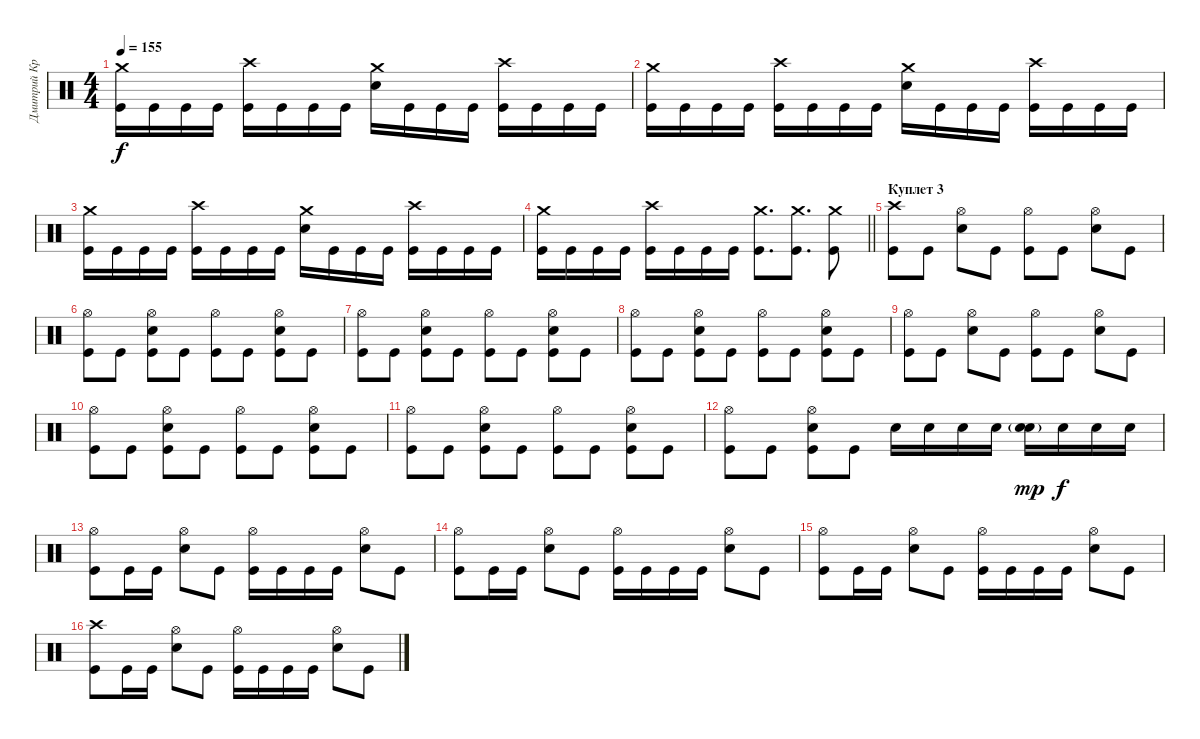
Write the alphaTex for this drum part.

\track ("Дмитрий Кривенков" "Дмитрий Кр") {instrument percussion}
\staff {score}
\articulation defaults
\ts (4 4)
\tempo 155
\clef neutral
\ks c
("Crash medium (hit)" "Kick (hit)").16{dy f} "Kick (hit)".16 "Kick (hit)".16 "Kick (hit)".16 ("Crash high (hit)" "Kick (hit)").16 "Kick (hit)".16 "Kick (hit)".16 "Kick (hit)".16 ("Crash medium (hit)" "Snare (hit) 2").16 "Kick (hit)".16 "Kick (hit)".16 "Kick (hit)".16 ("Crash high (hit)" "Kick (hit)").16 "Kick (hit)".16 "Kick (hit)".16 "Kick (hit)".16 |
("Crash medium (hit)" "Kick (hit)").16 "Kick (hit)".16 "Kick (hit)".16 "Kick (hit)".16 ("Crash high (hit)" "Kick (hit)").16 "Kick (hit)".16 "Kick (hit)".16 "Kick (hit)".16 ("Crash medium (hit)" "Snare (hit) 2").16 "Kick (hit)".16 "Kick (hit)".16 "Kick (hit)".16 ("Crash high (hit)" "Kick (hit)").16 "Kick (hit)".16 "Kick (hit)".16 "Kick (hit)".16 |
("Crash medium (hit)" "Kick (hit)").16 "Kick (hit)".16 "Kick (hit)".16 "Kick (hit)".16 ("Crash high (hit)" "Kick (hit)").16 "Kick (hit)".16 "Kick (hit)".16 "Kick (hit)".16 ("Crash medium (hit)" "Snare (hit) 2").16 "Kick (hit)".16 "Kick (hit)".16 "Kick (hit)".16 ("Crash high (hit)" "Kick (hit)").16 "Kick (hit)".16 "Kick (hit)".16 "Kick (hit)".16 |
\barLineRight lightlight
("Crash medium (hit)" "Kick (hit)").16 "Kick (hit)".16 "Kick (hit)".16 "Kick (hit)".16 ("Crash high (hit)" "Kick (hit)").16 "Kick (hit)".16 "Kick (hit)".16 "Kick (hit)".16 ("Crash medium (hit)" "Kick (hit)").8{d} ("Crash medium (hit)" "Kick (hit)").8{d} ("Crash medium (hit)" "Kick (hit)").8 |
\section ("" "Куплет 3")
("Crash high (hit)" "Kick (hit)").8 "Kick (hit)".8 ("Hi-Hat (open)" "Snare (hit) 2").8 "Kick (hit)".8 ("Hi-Hat (open)" "Kick (hit)").8 "Kick (hit)".8 ("Hi-Hat (open)" "Snare (hit) 2").8 "Kick (hit)".8 |
("Hi-Hat (open)" "Kick (hit)").8 "Kick (hit)".8 ("Hi-Hat (open)" "Snare (hit) 2" "Kick (hit)").8 "Kick (hit)".8 ("Hi-Hat (open)" "Kick (hit)").8 "Kick (hit)".8 ("Hi-Hat (open)" "Snare (hit) 2" "Kick (hit)").8 "Kick (hit)".8 |
("Hi-Hat (open)" "Kick (hit)").8 "Kick (hit)".8 ("Hi-Hat (open)" "Snare (hit) 2" "Kick (hit)").8 "Kick (hit)".8 ("Hi-Hat (open)" "Kick (hit)").8 "Kick (hit)".8 ("Hi-Hat (open)" "Snare (hit) 2" "Kick (hit)").8 "Kick (hit)".8 |
("Hi-Hat (open)" "Kick (hit)").8 "Kick (hit)".8 ("Hi-Hat (open)" "Snare (hit) 2" "Kick (hit)").8 "Kick (hit)".8 ("Hi-Hat (open)" "Kick (hit)").8 "Kick (hit)".8 ("Hi-Hat (open)" "Snare (hit) 2" "Kick (hit)").8 "Kick (hit)".8 |
("Hi-Hat (open)" "Kick (hit)").8 "Kick (hit)".8 ("Hi-Hat (open)" "Snare (hit) 2").8 "Kick (hit)".8 ("Hi-Hat (open)" "Kick (hit)").8 "Kick (hit)".8 ("Hi-Hat (open)" "Snare (hit) 2").8 "Kick (hit)".8 |
("Hi-Hat (open)" "Kick (hit)").8 "Kick (hit)".8 ("Hi-Hat (open)" "Snare (hit) 2" "Kick (hit)").8 "Kick (hit)".8 ("Hi-Hat (open)" "Kick (hit)").8 "Kick (hit)".8 ("Hi-Hat (open)" "Snare (hit) 2" "Kick (hit)").8 "Kick (hit)".8 |
("Hi-Hat (open)" "Kick (hit)").8 "Kick (hit)".8 ("Hi-Hat (open)" "Snare (hit) 2" "Kick (hit)").8 "Kick (hit)".8 ("Hi-Hat (open)" "Kick (hit)").8 "Kick (hit)".8 ("Hi-Hat (open)" "Snare (hit) 2" "Kick (hit)").8 "Kick (hit)".8 |
("Hi-Hat (open)" "Kick (hit)").8 "Kick (hit)".8 ("Hi-Hat (open)" "Snare (hit) 2" "Kick (hit)").8 "Kick (hit)".8 "Snare (hit) 2".16 "Snare (hit) 2".16 "Snare (hit) 2".16 "Snare (hit) 2".16 ("Snare (hit) 2"{g} "Snare (hit) 2").16{dy mp} "Snare (hit) 2".16{dy f} "Snare (hit) 2".16 "Snare (hit) 2".16 |
("Hi-Hat (open)" "Kick (hit)").8 "Kick (hit)".16 "Kick (hit)".16 ("Hi-Hat (open)" "Snare (hit) 2").8 "Kick (hit)".8 ("Hi-Hat (open)" "Kick (hit)").16 "Kick (hit)".16 "Kick (hit)".16 "Kick (hit)".16 ("Hi-Hat (open)" "Snare (hit) 2").8 "Kick (hit)".8 |
("Hi-Hat (open)" "Kick (hit)").8 "Kick (hit)".16 "Kick (hit)".16 ("Hi-Hat (open)" "Snare (hit) 2").8 "Kick (hit)".8 ("Hi-Hat (open)" "Kick (hit)").16 "Kick (hit)".16 "Kick (hit)".16 "Kick (hit)".16 ("Hi-Hat (open)" "Snare (hit) 2").8 "Kick (hit)".8 |
("Hi-Hat (open)" "Kick (hit)").8 "Kick (hit)".16 "Kick (hit)".16 ("Hi-Hat (open)" "Snare (hit) 2").8 "Kick (hit)".8 ("Hi-Hat (open)" "Kick (hit)").16 "Kick (hit)".16 "Kick (hit)".16 "Kick (hit)".16 ("Hi-Hat (open)" "Snare (hit) 2").8 "Kick (hit)".8 |
("Crash high (hit)" "Kick (hit)").8 "Kick (hit)".16 "Kick (hit)".16 ("Hi-Hat (open)" "Snare (hit) 2").8 "Kick (hit)".8 ("Hi-Hat (open)" "Kick (hit)").16 "Kick (hit)".16 "Kick (hit)".16 "Kick (hit)".16 ("Hi-Hat (open)" "Snare (hit) 2").8 "Kick (hit)".8
